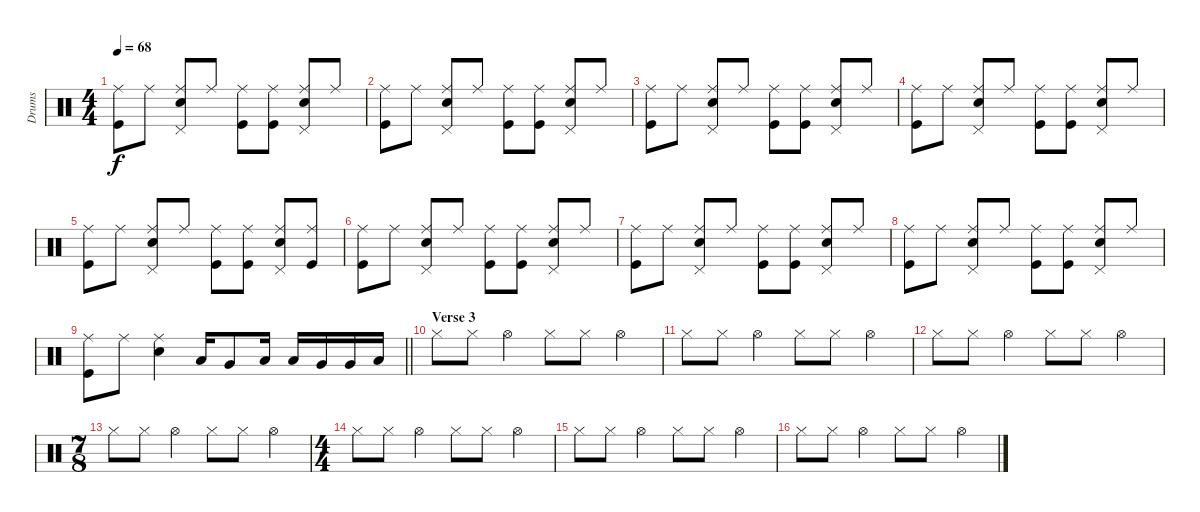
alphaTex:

\track ("Drums" "Drums") {instrument percussion}
\staff {score}
\articulation defaults
\ts (4 4)
\tempo 68
\clef neutral
\ks c
("Ride (middle)" "Kick (hit)").8{dy f} "Ride (middle)".8 ("Ride (middle)" "Snare (hit) 2" "Pedal Hi-Hat (hit)").8 "Ride (middle)".8 ("Ride (middle)" "Kick (hit)").8 ("Ride (middle)" "Kick (hit)").8 ("Ride (middle)" "Snare (hit) 2" "Pedal Hi-Hat (hit)").8 "Ride (middle)".8 |
("Ride (middle)" "Kick (hit)").8 "Ride (middle)".8 ("Ride (middle)" "Snare (hit) 2" "Pedal Hi-Hat (hit)").8 "Ride (middle)".8 ("Ride (middle)" "Kick (hit)").8 ("Ride (middle)" "Kick (hit)").8 ("Ride (middle)" "Snare (hit) 2" "Pedal Hi-Hat (hit)").8 "Ride (middle)".8 |
("Ride (middle)" "Kick (hit)").8 "Ride (middle)".8 ("Ride (middle)" "Snare (hit) 2" "Pedal Hi-Hat (hit)").8 "Ride (middle)".8 ("Ride (middle)" "Kick (hit)").8 ("Ride (middle)" "Kick (hit)").8 ("Ride (middle)" "Snare (hit) 2" "Pedal Hi-Hat (hit)").8 "Ride (middle)".8 |
("Ride (middle)" "Kick (hit)").8 "Ride (middle)".8 ("Ride (middle)" "Snare (hit) 2" "Pedal Hi-Hat (hit)").8 "Ride (middle)".8 ("Ride (middle)" "Kick (hit)").8 ("Ride (middle)" "Kick (hit)").8 ("Ride (middle)" "Snare (hit) 2" "Pedal Hi-Hat (hit)").8 "Ride (middle)".8 |
("Ride (middle)" "Kick (hit)").8 "Ride (middle)".8 ("Ride (middle)" "Snare (hit) 2" "Pedal Hi-Hat (hit)").8 "Ride (middle)".8 ("Ride (middle)" "Kick (hit)").8 ("Ride (middle)" "Kick (hit)").8 ("Ride (middle)" "Snare (hit) 2" "Pedal Hi-Hat (hit)").8 ("Ride (middle)" "Kick (hit)").8 |
("Ride (middle)" "Kick (hit)").8 "Ride (middle)".8 ("Ride (middle)" "Snare (hit) 2" "Pedal Hi-Hat (hit)").8 "Ride (middle)".8 ("Ride (middle)" "Kick (hit)").8 ("Ride (middle)" "Kick (hit)").8 ("Ride (middle)" "Snare (hit) 2" "Pedal Hi-Hat (hit)").8 "Ride (middle)".8 |
("Ride (middle)" "Kick (hit)").8 "Ride (middle)".8 ("Ride (middle)" "Snare (hit) 2" "Pedal Hi-Hat (hit)").8 "Ride (middle)".8 ("Ride (middle)" "Kick (hit)").8 ("Ride (middle)" "Kick (hit)").8 ("Ride (middle)" "Snare (hit) 2" "Pedal Hi-Hat (hit)").8 "Ride (middle)".8 |
("Ride (middle)" "Kick (hit)").8 "Ride (middle)".8 ("Ride (middle)" "Snare (hit) 2" "Pedal Hi-Hat (hit)").8 "Ride (middle)".8 ("Ride (middle)" "Kick (hit)").8 ("Ride (middle)" "Kick (hit)").8 ("Ride (middle)" "Snare (hit) 2" "Pedal Hi-Hat (hit)").8 "Ride (middle)".8 |
\barLineRight lightlight
("Ride (middle)" "Kick (hit)").8 "Ride (middle)".8 ("Ride (middle)" "Snare (hit) 2").4 "Low Tom (hit)".16 "Very Low Tom (hit)".8 "Low Tom (hit)".16 "Low Tom (hit)".16 "Very Low Tom (hit)".16 "Very Low Tom (hit)".16 "Low Floor Tom (hit)".16 |
\section ("" "Verse 3")
"Hi-Hat (closed)".8 "Hi-Hat (closed)".8 "Hi-Hat (open)".4 "Hi-Hat (closed)".8 "Hi-Hat (closed)".8 "Hi-Hat (open)".4 |
"Hi-Hat (closed)".8 "Hi-Hat (closed)".8 "Hi-Hat (open)".4 "Hi-Hat (closed)".8 "Hi-Hat (closed)".8 "Hi-Hat (open)".4 |
"Hi-Hat (closed)".8 "Hi-Hat (closed)".8 "Hi-Hat (open)".4 "Hi-Hat (closed)".8 "Hi-Hat (closed)".8 "Hi-Hat (open)".4 |
\ts (7 8)
"Hi-Hat (closed)".8 "Hi-Hat (closed)".8 "Hi-Hat (open)".4 "Hi-Hat (closed)".8 "Hi-Hat (closed)".8 "Hi-Hat (open)".4 |
\ts (4 4)
"Hi-Hat (closed)".8 "Hi-Hat (closed)".8 "Hi-Hat (open)".4 "Hi-Hat (closed)".8 "Hi-Hat (closed)".8 "Hi-Hat (open)".4 |
"Hi-Hat (closed)".8 "Hi-Hat (closed)".8 "Hi-Hat (open)".4 "Hi-Hat (closed)".8 "Hi-Hat (closed)".8 "Hi-Hat (open)".4 |
"Hi-Hat (closed)".8 "Hi-Hat (closed)".8 "Hi-Hat (open)".4 "Hi-Hat (closed)".8 "Hi-Hat (closed)".8 "Hi-Hat (open)".4
